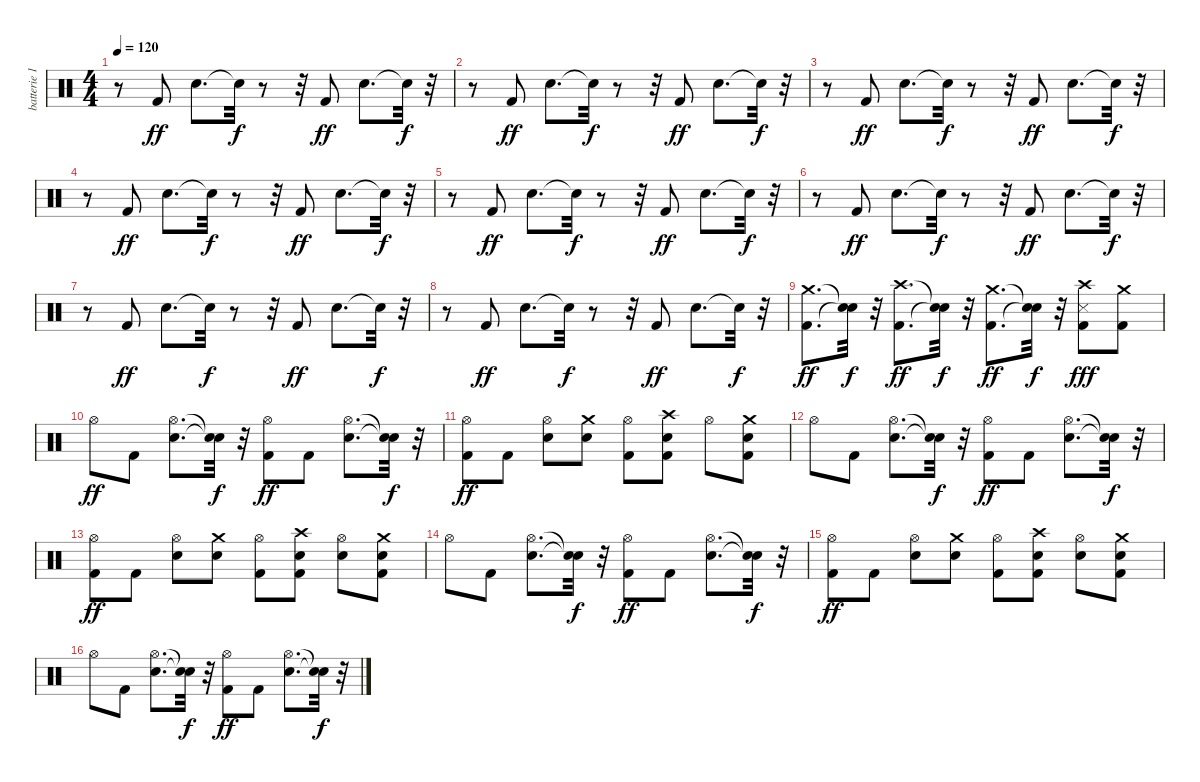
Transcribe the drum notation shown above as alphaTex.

\track ("batterie 1" "batterie 1") {instrument percussion}
\staff {score}
\articulation defaults
\ts (4 4)
\tempo 120
\clef neutral
\ks c
r.8{dy ff} "Kick (hit) 2".8 "Electric Snare (hit)".8{d} "Snare (hit)"{t}.32{dy f} r.8 r.32 "Kick (hit) 2".8{dy ff} "Electric Snare (hit)".8{d} "Snare (hit)"{t}.32{dy f} r.32 |
r.8 "Kick (hit) 2".8{dy ff} "Electric Snare (hit)".8{d} "Snare (hit)"{t}.32{dy f} r.8 r.32 "Kick (hit) 2".8{dy ff} "Electric Snare (hit)".8{d} "Snare (hit)"{t}.32{dy f} r.32 |
r.8 "Kick (hit) 2".8{dy ff} "Electric Snare (hit)".8{d} "Snare (hit)"{t}.32{dy f} r.8 r.32 "Kick (hit) 2".8{dy ff} "Electric Snare (hit)".8{d} "Snare (hit)"{t}.32{dy f} r.32 |
r.8 "Kick (hit) 2".8{dy ff} "Electric Snare (hit)".8{d} "Snare (hit)"{t}.32{dy f} r.8 r.32 "Kick (hit) 2".8{dy ff} "Electric Snare (hit)".8{d} "Snare (hit)"{t}.32{dy f} r.32 |
r.8 "Kick (hit) 2".8{dy ff} "Electric Snare (hit)".8{d} "Snare (hit)"{t}.32{dy f} r.8 r.32 "Kick (hit) 2".8{dy ff} "Electric Snare (hit)".8{d} "Snare (hit)"{t}.32{dy f} r.32 |
r.8 "Kick (hit) 2".8{dy ff} "Electric Snare (hit)".8{d} "Snare (hit)"{t}.32{dy f} r.8 r.32 "Kick (hit) 2".8{dy ff} "Electric Snare (hit)".8{d} "Snare (hit)"{t}.32{dy f} r.32 |
r.8 "Kick (hit) 2".8{dy ff} "Electric Snare (hit)".8{d} "Snare (hit)"{t}.32{dy f} r.8 r.32 "Kick (hit) 2".8{dy ff} "Electric Snare (hit)".8{d} "Snare (hit)"{t}.32{dy f} r.32 |
r.8 "Kick (hit) 2".8{dy ff} "Electric Snare (hit)".8{d} "Snare (hit)"{t}.32{dy f} r.8 r.32 "Kick (hit) 2".8{dy ff} "Electric Snare (hit)".8{d} "Snare (hit)"{t}.32{dy f} r.32 |
("Kick (hit) 2" "Crash medium (hit)").8{d dy ff} ("Snare (hit)"{t} "Snare (hit)"{t}).32{dy f} r.32 ("Kick (hit) 2" "Crash high (hit)").8{d dy ff} ("Snare (hit)"{t} "Snare (hit)"{t}).32{dy f} r.32 ("Kick (hit) 2" "Crash medium (hit)").8{d dy ff} ("Snare (hit)"{t} "Snare (hit)"{t}).32{dy f} r.32 ("Kick (hit) 2" "Snare (side stick) 3" "Crash high (hit)").8{dy fff} ("Kick (hit) 2" "Crash medium (hit)").8 |
"Hi-Hat (open)".8{dy ff} "Kick (hit) 2".8 ("Electric Snare (hit)" "Hi-Hat (open)").8{d} ("Snare (hit)"{t} "Snare (hit)"{t}).32{dy f} r.32 ("Kick (hit) 2" "Hi-Hat (open)").8{dy ff} "Kick (hit) 2".8 ("Electric Snare (hit)" "Hi-Hat (open)").8{d} ("Snare (hit)"{t} "Snare (hit)"{t}).32{dy f} r.32 |
("Kick (hit) 2" "Hi-Hat (open)").8{dy ff} "Kick (hit) 2".8 ("Electric Snare (hit)" "Hi-Hat (open)").8 ("Electric Snare (hit)" "Crash medium (hit)").8 ("Kick (hit) 2" "Hi-Hat (open)").8 ("Kick (hit) 2" "Electric Snare (hit)" "Crash high (hit)").8 "Hi-Hat (open)".8 ("Kick (hit) 2" "Electric Snare (hit)" "Crash medium (hit)").8 |
"Hi-Hat (open)".8 "Kick (hit) 2".8 ("Electric Snare (hit)" "Hi-Hat (open)").8{d} ("Snare (hit)"{t} "Snare (hit)"{t}).32{dy f} r.32 ("Kick (hit) 2" "Hi-Hat (open)").8{dy ff} "Kick (hit) 2".8 ("Electric Snare (hit)" "Hi-Hat (open)").8{d} ("Snare (hit)"{t} "Snare (hit)"{t}).32{dy f} r.32 |
("Kick (hit) 2" "Hi-Hat (open)").8{dy ff} "Kick (hit) 2".8 ("Electric Snare (hit)" "Hi-Hat (open)").8 ("Electric Snare (hit)" "Crash medium (hit)").8 ("Kick (hit) 2" "Hi-Hat (open)").8 ("Kick (hit) 2" "Electric Snare (hit)" "Crash high (hit)").8 ("Electric Snare (hit)" "Hi-Hat (open)").8 ("Kick (hit) 2" "Electric Snare (hit)" "Crash medium (hit)").8 |
"Hi-Hat (open)".8 "Kick (hit) 2".8 ("Electric Snare (hit)" "Hi-Hat (open)").8{d} ("Snare (hit)"{t} "Snare (hit)"{t}).32{dy f} r.32 ("Kick (hit) 2" "Hi-Hat (open)").8{dy ff} "Kick (hit) 2".8 ("Electric Snare (hit)" "Hi-Hat (open)").8{d} ("Snare (hit)"{t} "Snare (hit)"{t}).32{dy f} r.32 |
("Kick (hit) 2" "Hi-Hat (open)").8{dy ff} "Kick (hit) 2".8 ("Electric Snare (hit)" "Hi-Hat (open)").8 ("Electric Snare (hit)" "Crash medium (hit)").8 ("Kick (hit) 2" "Hi-Hat (open)").8 ("Kick (hit) 2" "Electric Snare (hit)" "Crash high (hit)").8 ("Electric Snare (hit)" "Hi-Hat (open)").8 ("Kick (hit) 2" "Electric Snare (hit)" "Crash medium (hit)").8 |
"Hi-Hat (open)".8 "Kick (hit) 2".8 ("Electric Snare (hit)" "Hi-Hat (open)").8{d} ("Snare (hit)"{t} "Snare (hit)"{t}).32{dy f} r.32 ("Kick (hit) 2" "Hi-Hat (open)").8{dy ff} "Kick (hit) 2".8 ("Electric Snare (hit)" "Hi-Hat (open)").8{d} ("Snare (hit)"{t} "Snare (hit)"{t}).32{dy f} r.32
